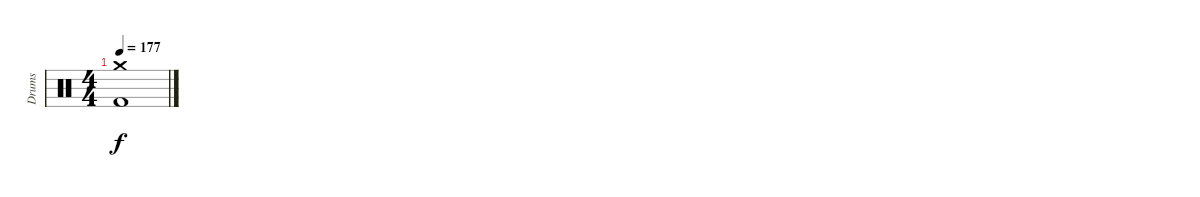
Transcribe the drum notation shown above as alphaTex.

\track ("Drums" "Drums") {instrument percussion}
\staff {score}
\articulation defaults
\ts (4 4)
\tempo 177
\clef neutral
\ks c
("Crash medium (hit)" "Kick (hit) 2").1{dy f}
